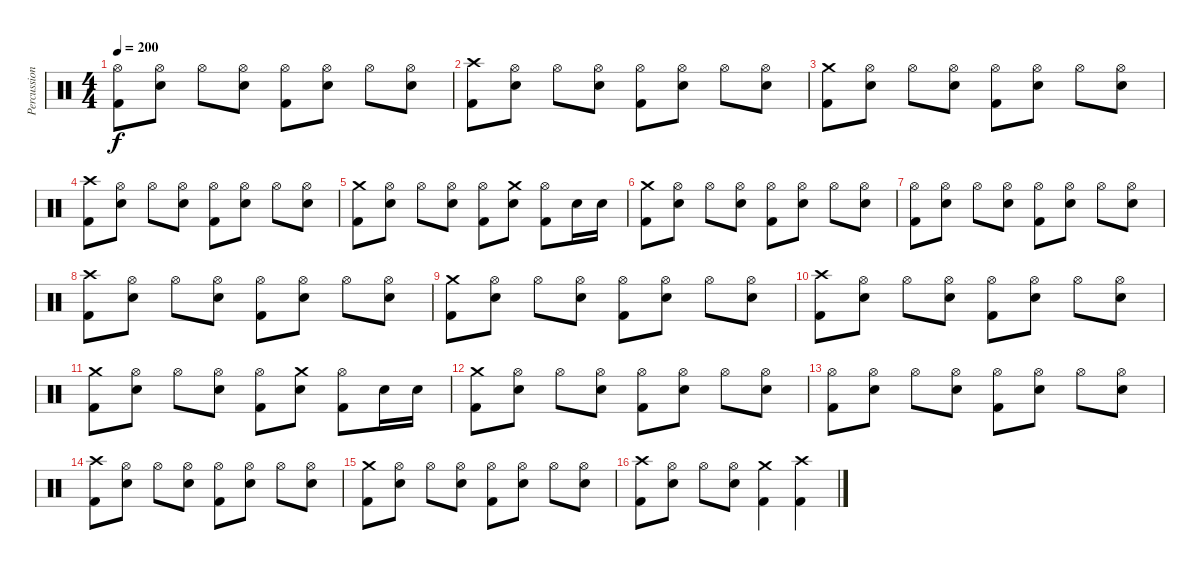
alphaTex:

\track ("Percussion" "Percussion") {instrument percussion}
\staff {score}
\articulation defaults
\ts (4 4)
\tempo 200
\clef neutral
\ks c
("Hi-Hat (open)" "Kick (hit) 2").8{dy f} ("Hi-Hat (open)" "Electric Snare (hit)").8 "Hi-Hat (open)".8 ("Hi-Hat (open)" "Electric Snare (hit)").8 ("Hi-Hat (open)" "Kick (hit) 2").8 ("Hi-Hat (open)" "Electric Snare (hit)").8 "Hi-Hat (open)".8 ("Hi-Hat (open)" "Electric Snare (hit)").8 |
("Crash high (hit)" "Kick (hit) 2").8 ("Hi-Hat (open)" "Electric Snare (hit)").8 "Hi-Hat (open)".8 ("Hi-Hat (open)" "Electric Snare (hit)").8 ("Hi-Hat (open)" "Kick (hit) 2").8 ("Hi-Hat (open)" "Electric Snare (hit)").8 "Hi-Hat (open)".8 ("Hi-Hat (open)" "Electric Snare (hit)").8 |
("Crash medium (hit)" "Kick (hit) 2").8 ("Hi-Hat (open)" "Electric Snare (hit)").8 "Hi-Hat (open)".8 ("Hi-Hat (open)" "Electric Snare (hit)").8 ("Hi-Hat (open)" "Kick (hit) 2").8 ("Hi-Hat (open)" "Electric Snare (hit)").8 "Hi-Hat (open)".8 ("Hi-Hat (open)" "Electric Snare (hit)").8 |
("Crash high (hit)" "Kick (hit) 2").8 ("Hi-Hat (open)" "Electric Snare (hit)").8 "Hi-Hat (open)".8 ("Hi-Hat (open)" "Electric Snare (hit)").8 ("Hi-Hat (open)" "Kick (hit) 2").8 ("Hi-Hat (open)" "Electric Snare (hit)").8 "Hi-Hat (open)".8 ("Hi-Hat (open)" "Electric Snare (hit)").8 |
("Crash medium (hit)" "Kick (hit) 2").8 ("Hi-Hat (open)" "Electric Snare (hit)").8 "Hi-Hat (open)".8 ("Hi-Hat (open)" "Electric Snare (hit)").8 ("Hi-Hat (open)" "Kick (hit) 2").8 ("Crash medium (hit)" "Electric Snare (hit)").8 ("Hi-Hat (open)" "Kick (hit) 2").8 "Electric Snare (hit)".16 "Electric Snare (hit)".16 |
("Crash medium (hit)" "Kick (hit) 2").8 ("Hi-Hat (open)" "Electric Snare (hit)").8 "Hi-Hat (open)".8 ("Hi-Hat (open)" "Electric Snare (hit)").8 ("Hi-Hat (open)" "Kick (hit) 2").8 ("Hi-Hat (open)" "Electric Snare (hit)").8 "Hi-Hat (open)".8 ("Hi-Hat (open)" "Electric Snare (hit)").8 |
("Hi-Hat (open)" "Kick (hit) 2").8 ("Hi-Hat (open)" "Electric Snare (hit)").8 "Hi-Hat (open)".8 ("Hi-Hat (open)" "Electric Snare (hit)").8 ("Hi-Hat (open)" "Kick (hit) 2").8 ("Hi-Hat (open)" "Electric Snare (hit)").8 "Hi-Hat (open)".8 ("Hi-Hat (open)" "Electric Snare (hit)").8 |
("Crash high (hit)" "Kick (hit) 2").8 ("Hi-Hat (open)" "Electric Snare (hit)").8 "Hi-Hat (open)".8 ("Hi-Hat (open)" "Electric Snare (hit)").8 ("Hi-Hat (open)" "Kick (hit) 2").8 ("Hi-Hat (open)" "Electric Snare (hit)").8 "Hi-Hat (open)".8 ("Hi-Hat (open)" "Electric Snare (hit)").8 |
("Crash medium (hit)" "Kick (hit) 2").8 ("Hi-Hat (open)" "Electric Snare (hit)").8 "Hi-Hat (open)".8 ("Hi-Hat (open)" "Electric Snare (hit)").8 ("Hi-Hat (open)" "Kick (hit) 2").8 ("Hi-Hat (open)" "Electric Snare (hit)").8 "Hi-Hat (open)".8 ("Hi-Hat (open)" "Electric Snare (hit)").8 |
("Crash high (hit)" "Kick (hit) 2").8 ("Hi-Hat (open)" "Electric Snare (hit)").8 "Hi-Hat (open)".8 ("Hi-Hat (open)" "Electric Snare (hit)").8 ("Hi-Hat (open)" "Kick (hit) 2").8 ("Hi-Hat (open)" "Electric Snare (hit)").8 "Hi-Hat (open)".8 ("Hi-Hat (open)" "Electric Snare (hit)").8 |
("Crash medium (hit)" "Kick (hit) 2").8 ("Hi-Hat (open)" "Electric Snare (hit)").8 "Hi-Hat (open)".8 ("Hi-Hat (open)" "Electric Snare (hit)").8 ("Hi-Hat (open)" "Kick (hit) 2").8 ("Crash medium (hit)" "Electric Snare (hit)").8 ("Hi-Hat (open)" "Kick (hit) 2").8 "Electric Snare (hit)".16 "Electric Snare (hit)".16 |
("Crash medium (hit)" "Kick (hit) 2").8 ("Hi-Hat (open)" "Electric Snare (hit)").8 "Hi-Hat (open)".8 ("Hi-Hat (open)" "Electric Snare (hit)").8 ("Hi-Hat (open)" "Kick (hit) 2").8 ("Hi-Hat (open)" "Electric Snare (hit)").8 "Hi-Hat (open)".8 ("Hi-Hat (open)" "Electric Snare (hit)").8 |
("Hi-Hat (open)" "Kick (hit) 2").8 ("Hi-Hat (open)" "Electric Snare (hit)").8 "Hi-Hat (open)".8 ("Hi-Hat (open)" "Electric Snare (hit)").8 ("Hi-Hat (open)" "Kick (hit) 2").8 ("Hi-Hat (open)" "Electric Snare (hit)").8 "Hi-Hat (open)".8 ("Hi-Hat (open)" "Electric Snare (hit)").8 |
("Crash high (hit)" "Kick (hit) 2").8 ("Hi-Hat (open)" "Electric Snare (hit)").8 "Hi-Hat (open)".8 ("Hi-Hat (open)" "Electric Snare (hit)").8 ("Hi-Hat (open)" "Kick (hit) 2").8 ("Hi-Hat (open)" "Electric Snare (hit)").8 "Hi-Hat (open)".8 ("Hi-Hat (open)" "Electric Snare (hit)").8 |
("Crash medium (hit)" "Kick (hit) 2").8 ("Hi-Hat (open)" "Electric Snare (hit)").8 "Hi-Hat (open)".8 ("Hi-Hat (open)" "Electric Snare (hit)").8 ("Hi-Hat (open)" "Kick (hit) 2").8 ("Hi-Hat (open)" "Electric Snare (hit)").8 "Hi-Hat (open)".8 ("Hi-Hat (open)" "Electric Snare (hit)").8 |
("Crash high (hit)" "Kick (hit) 2").8 ("Hi-Hat (open)" "Electric Snare (hit)").8 "Hi-Hat (open)".8 ("Hi-Hat (open)" "Electric Snare (hit)").8 ("Crash medium (hit)" "Kick (hit) 2").4 ("Crash high (hit)" "Kick (hit) 2").4
